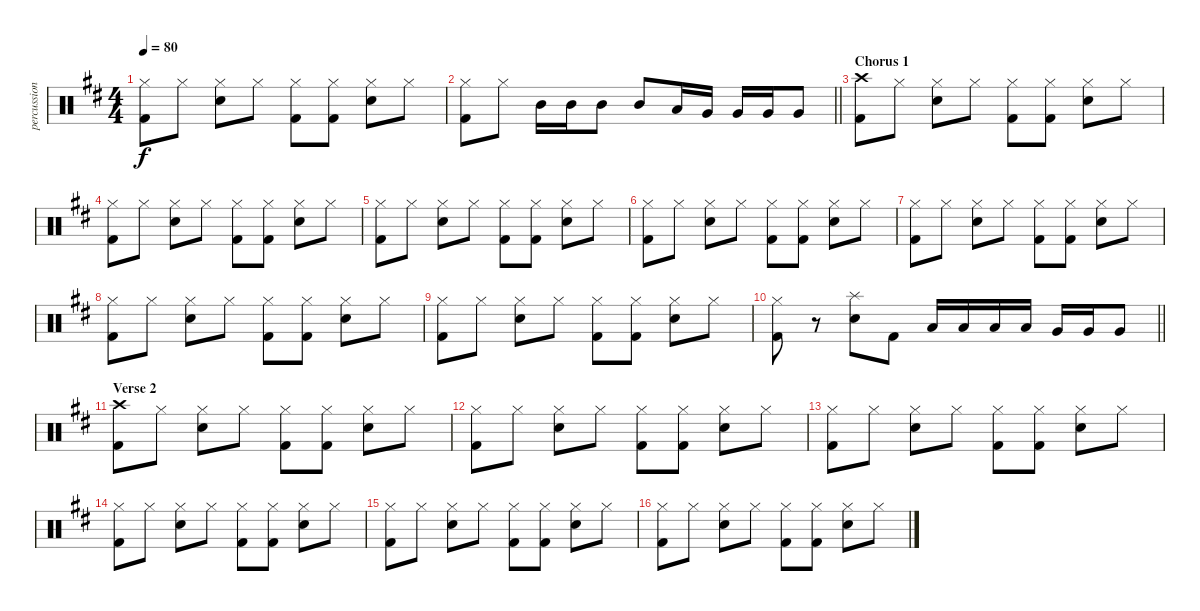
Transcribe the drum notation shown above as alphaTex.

\track ("percussion" "percussion") {instrument percussion}
\staff {score}
\articulation defaults
\ts (4 4)
\tempo 80
\clef neutral
\ks d
("Hi-Hat (closed)" "Kick (hit) 2").8{dy f} "Hi-Hat (closed)".8 ("Snare (hit) 2" "Hi-Hat (closed)").8 "Hi-Hat (closed)".8 ("Hi-Hat (closed)" "Kick (hit) 2").8 ("Hi-Hat (closed)" "Kick (hit) 2").8 ("Snare (hit) 2" "Hi-Hat (closed)").8 "Hi-Hat (closed)".8 |
\barLineRight lightlight
("Hi-Hat (closed)" "Kick (hit) 2").8 "Hi-Hat (closed)".8 "Mid Tom (hit)".16 "Mid Tom (hit)".16 "Mid Tom (hit)".8 "Mid Tom (hit)".8 "Low Tom (hit)".16 "Very Low Tom (hit)".16 "Very Low Tom (hit)".16 "Very Low Tom (hit)".16 "Very Low Tom (hit)".8 |
\section ("" "Chorus 1")
("Crash high (hit)" "Kick (hit) 2").8 "Hi-Hat (closed)".8 ("Snare (hit) 2" "Hi-Hat (closed)").8 "Hi-Hat (closed)".8 ("Hi-Hat (closed)" "Kick (hit) 2").8 ("Hi-Hat (closed)" "Kick (hit) 2").8 ("Snare (hit) 2" "Hi-Hat (closed)").8 "Hi-Hat (closed)".8 |
("Hi-Hat (closed)" "Kick (hit) 2").8 "Hi-Hat (closed)".8 ("Snare (hit) 2" "Hi-Hat (closed)").8 "Hi-Hat (closed)".8 ("Hi-Hat (closed)" "Kick (hit) 2").8 ("Hi-Hat (closed)" "Kick (hit) 2").8 ("Snare (hit) 2" "Hi-Hat (closed)").8 "Hi-Hat (closed)".8 |
("Hi-Hat (closed)" "Kick (hit) 2").8 "Hi-Hat (closed)".8 ("Snare (hit) 2" "Hi-Hat (closed)").8 "Hi-Hat (closed)".8 ("Hi-Hat (closed)" "Kick (hit) 2").8 ("Hi-Hat (closed)" "Kick (hit) 2").8 ("Snare (hit) 2" "Hi-Hat (closed)").8 "Hi-Hat (closed)".8 |
("Hi-Hat (closed)" "Kick (hit) 2").8 "Hi-Hat (closed)".8 ("Snare (hit) 2" "Hi-Hat (closed)").8 "Hi-Hat (closed)".8 ("Hi-Hat (closed)" "Kick (hit) 2").8 ("Hi-Hat (closed)" "Kick (hit) 2").8 ("Snare (hit) 2" "Hi-Hat (closed)").8 "Hi-Hat (closed)".8 |
("Hi-Hat (closed)" "Kick (hit) 2").8 "Hi-Hat (closed)".8 ("Snare (hit) 2" "Hi-Hat (closed)").8 "Hi-Hat (closed)".8 ("Hi-Hat (closed)" "Kick (hit) 2").8 ("Hi-Hat (closed)" "Kick (hit) 2").8 ("Snare (hit) 2" "Hi-Hat (closed)").8 "Hi-Hat (closed)".8 |
("Hi-Hat (closed)" "Kick (hit) 2").8 "Hi-Hat (closed)".8 ("Snare (hit) 2" "Hi-Hat (closed)").8 "Hi-Hat (closed)".8 ("Hi-Hat (closed)" "Kick (hit) 2").8 ("Hi-Hat (closed)" "Kick (hit) 2").8 ("Snare (hit) 2" "Hi-Hat (closed)").8 "Hi-Hat (closed)".8 |
("Hi-Hat (closed)" "Kick (hit) 2").8 "Hi-Hat (closed)".8 ("Snare (hit) 2" "Hi-Hat (closed)").8 "Hi-Hat (closed)".8 ("Hi-Hat (closed)" "Kick (hit) 2").8 ("Hi-Hat (closed)" "Kick (hit) 2").8 ("Snare (hit) 2" "Hi-Hat (closed)").8 "Hi-Hat (closed)".8 |
\barLineRight lightlight
("Hi-Hat (closed)" "Kick (hit) 2").8 r.8 ("Splash (hit)" "Snare (hit) 2").8 "Kick (hit) 2".8 "Low Tom (hit)".16 "Low Tom (hit)".16 "Low Tom (hit)".16 "Low Tom (hit)".16 "Very Low Tom (hit)".16 "Very Low Tom (hit)".16 "Very Low Tom (hit)".8 |
\section ("" "Verse 2")
("Crash high (hit)" "Kick (hit) 2").8 "Hi-Hat (closed)".8 ("Snare (hit) 2" "Hi-Hat (closed)").8 "Hi-Hat (closed)".8 ("Hi-Hat (closed)" "Kick (hit) 2").8 ("Hi-Hat (closed)" "Kick (hit) 2").8 ("Snare (hit) 2" "Hi-Hat (closed)").8 "Hi-Hat (closed)".8 |
("Hi-Hat (closed)" "Kick (hit) 2").8 "Hi-Hat (closed)".8 ("Snare (hit) 2" "Hi-Hat (closed)").8 "Hi-Hat (closed)".8 ("Hi-Hat (closed)" "Kick (hit) 2").8 ("Hi-Hat (closed)" "Kick (hit) 2").8 ("Snare (hit) 2" "Hi-Hat (closed)").8 "Hi-Hat (closed)".8 |
("Hi-Hat (closed)" "Kick (hit) 2").8 "Hi-Hat (closed)".8 ("Snare (hit) 2" "Hi-Hat (closed)").8 "Hi-Hat (closed)".8 ("Hi-Hat (closed)" "Kick (hit) 2").8 ("Hi-Hat (closed)" "Kick (hit) 2").8 ("Snare (hit) 2" "Hi-Hat (closed)").8 "Hi-Hat (closed)".8 |
("Hi-Hat (closed)" "Kick (hit) 2").8 "Hi-Hat (closed)".8 ("Snare (hit) 2" "Hi-Hat (closed)").8 "Hi-Hat (closed)".8 ("Hi-Hat (closed)" "Kick (hit) 2").8 ("Hi-Hat (closed)" "Kick (hit) 2").8 ("Snare (hit) 2" "Hi-Hat (closed)").8 "Hi-Hat (closed)".8 |
("Hi-Hat (closed)" "Kick (hit) 2").8 "Hi-Hat (closed)".8 ("Snare (hit) 2" "Hi-Hat (closed)").8 "Hi-Hat (closed)".8 ("Hi-Hat (closed)" "Kick (hit) 2").8 ("Hi-Hat (closed)" "Kick (hit) 2").8 ("Snare (hit) 2" "Hi-Hat (closed)").8 "Hi-Hat (closed)".8 |
("Hi-Hat (closed)" "Kick (hit) 2").8 "Hi-Hat (closed)".8 ("Snare (hit) 2" "Hi-Hat (closed)").8 "Hi-Hat (closed)".8 ("Hi-Hat (closed)" "Kick (hit) 2").8 ("Hi-Hat (closed)" "Kick (hit) 2").8 ("Snare (hit) 2" "Hi-Hat (closed)").8 "Hi-Hat (closed)".8
